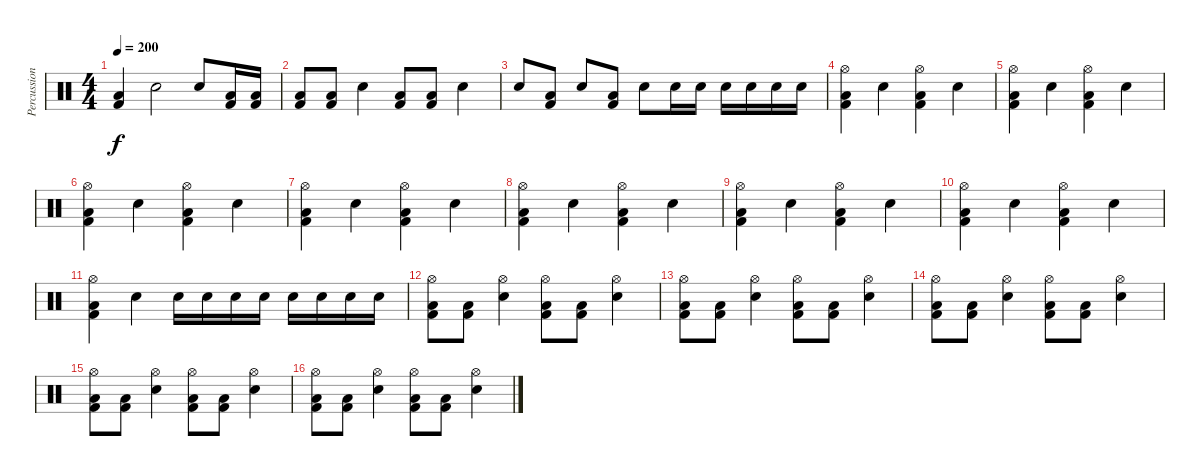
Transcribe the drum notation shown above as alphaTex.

\track ("Percussion" "Percussion") {instrument percussion}
\staff {score}
\articulation defaults
\ts (4 4)
\tempo 200
\clef neutral
\ks c
("Kick (hit) 2" "Low Floor Tom (hit)").4{dy f} "Electric Snare (hit)".2 "Electric Snare (hit)".8 ("Kick (hit) 2" "Low Floor Tom (hit)").16 ("Kick (hit) 2" "Low Floor Tom (hit)").16 |
("Kick (hit) 2" "Low Floor Tom (hit)").8 ("Kick (hit) 2" "Low Floor Tom (hit)").8 "Electric Snare (hit)".4 ("Kick (hit) 2" "Low Floor Tom (hit)").8 ("Kick (hit) 2" "Low Floor Tom (hit)").8 "Electric Snare (hit)".4 |
"Electric Snare (hit)".8 ("Kick (hit) 2" "Low Floor Tom (hit)").8 "Electric Snare (hit)".8 ("Kick (hit) 2" "Low Floor Tom (hit)").8 "Electric Snare (hit)".8 "Electric Snare (hit)".16 "Electric Snare (hit)".16 "Electric Snare (hit)".16 "Electric Snare (hit)".16 "Electric Snare (hit)".16 "Electric Snare (hit)".16 |
("Kick (hit) 2" "Low Floor Tom (hit)" "Hi-Hat (open)").4 "Electric Snare (hit)".4 ("Kick (hit) 2" "Low Floor Tom (hit)" "Hi-Hat (open)").4 "Electric Snare (hit)".4 |
("Kick (hit) 2" "Low Floor Tom (hit)" "Hi-Hat (open)").4 "Electric Snare (hit)".4 ("Kick (hit) 2" "Low Floor Tom (hit)" "Hi-Hat (open)").4 "Electric Snare (hit)".4 |
("Kick (hit) 2" "Low Floor Tom (hit)" "Hi-Hat (open)").4 "Electric Snare (hit)".4 ("Kick (hit) 2" "Low Floor Tom (hit)" "Hi-Hat (open)").4 "Electric Snare (hit)".4 |
("Kick (hit) 2" "Low Floor Tom (hit)" "Hi-Hat (open)").4 "Electric Snare (hit)".4 ("Kick (hit) 2" "Low Floor Tom (hit)" "Hi-Hat (open)").4 "Electric Snare (hit)".4 |
("Kick (hit) 2" "Low Floor Tom (hit)" "Hi-Hat (open)").4 "Electric Snare (hit)".4 ("Kick (hit) 2" "Low Floor Tom (hit)" "Hi-Hat (open)").4 "Electric Snare (hit)".4 |
("Kick (hit) 2" "Low Floor Tom (hit)" "Hi-Hat (open)").4 "Electric Snare (hit)".4 ("Kick (hit) 2" "Low Floor Tom (hit)" "Hi-Hat (open)").4 "Electric Snare (hit)".4 |
("Kick (hit) 2" "Low Floor Tom (hit)" "Hi-Hat (open)").4 "Electric Snare (hit)".4 ("Kick (hit) 2" "Low Floor Tom (hit)" "Hi-Hat (open)").4 "Electric Snare (hit)".4 |
("Kick (hit) 2" "Low Floor Tom (hit)" "Hi-Hat (open)").4 "Electric Snare (hit)".4 "Electric Snare (hit)".16 "Electric Snare (hit)".16 "Electric Snare (hit)".16 "Electric Snare (hit)".16 "Electric Snare (hit)".16 "Electric Snare (hit)".16 "Electric Snare (hit)".16 "Electric Snare (hit)".16 |
("Kick (hit) 2" "Low Floor Tom (hit)" "Hi-Hat (open)").8 ("Kick (hit) 2" "Low Floor Tom (hit)").8 ("Electric Snare (hit)" "Hi-Hat (open)").4 ("Kick (hit) 2" "Low Floor Tom (hit)" "Hi-Hat (open)").8 ("Kick (hit) 2" "Low Floor Tom (hit)").8 ("Electric Snare (hit)" "Hi-Hat (open)").4 |
("Kick (hit) 2" "Low Floor Tom (hit)" "Hi-Hat (open)").8 ("Kick (hit) 2" "Low Floor Tom (hit)").8 ("Electric Snare (hit)" "Hi-Hat (open)").4 ("Kick (hit) 2" "Low Floor Tom (hit)" "Hi-Hat (open)").8 ("Kick (hit) 2" "Low Floor Tom (hit)").8 ("Electric Snare (hit)" "Hi-Hat (open)").4 |
("Kick (hit) 2" "Low Floor Tom (hit)" "Hi-Hat (open)").8 ("Kick (hit) 2" "Low Floor Tom (hit)").8 ("Electric Snare (hit)" "Hi-Hat (open)").4 ("Kick (hit) 2" "Low Floor Tom (hit)" "Hi-Hat (open)").8 ("Kick (hit) 2" "Low Floor Tom (hit)").8 ("Electric Snare (hit)" "Hi-Hat (open)").4 |
("Kick (hit) 2" "Low Floor Tom (hit)" "Hi-Hat (open)").8 ("Kick (hit) 2" "Low Floor Tom (hit)").8 ("Electric Snare (hit)" "Hi-Hat (open)").4 ("Kick (hit) 2" "Low Floor Tom (hit)" "Hi-Hat (open)").8 ("Kick (hit) 2" "Low Floor Tom (hit)").8 ("Electric Snare (hit)" "Hi-Hat (open)").4 |
("Kick (hit) 2" "Low Floor Tom (hit)" "Hi-Hat (open)").8 ("Kick (hit) 2" "Low Floor Tom (hit)").8 ("Electric Snare (hit)" "Hi-Hat (open)").4 ("Kick (hit) 2" "Low Floor Tom (hit)" "Hi-Hat (open)").8 ("Kick (hit) 2" "Low Floor Tom (hit)").8 ("Electric Snare (hit)" "Hi-Hat (open)").4
